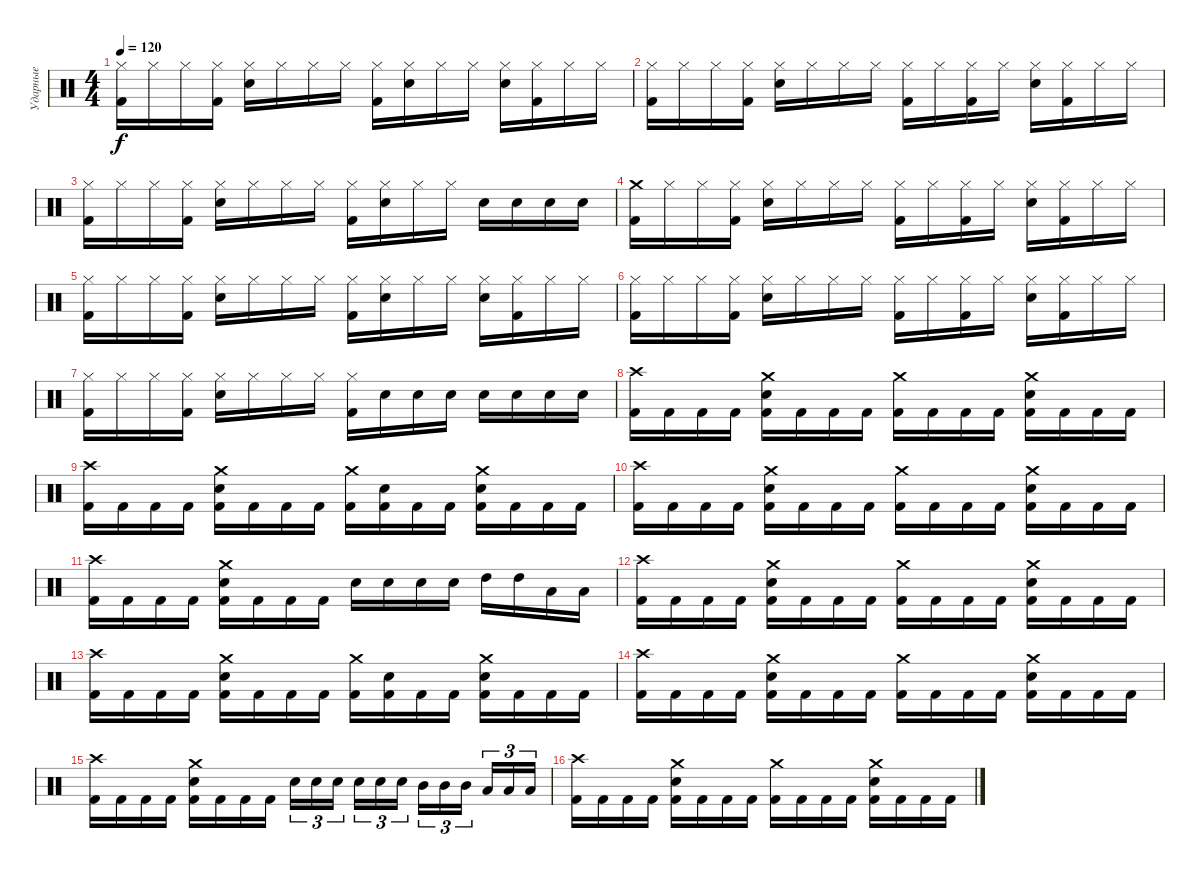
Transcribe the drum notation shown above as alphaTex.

\track ("Ударные" "Ударные") {instrument percussion}
\staff {score}
\articulation defaults
\ts (4 4)
\tempo 120
\clef neutral
\ks c
("Hi-Hat (closed)" "Kick (hit) 2").16{dy f} "Hi-Hat (closed)".16 "Hi-Hat (closed)".16 ("Hi-Hat (closed)" "Kick (hit) 2").16 ("Hi-Hat (closed)" "Electric Snare (hit)").16 "Hi-Hat (closed)".16 "Hi-Hat (closed)".16 "Hi-Hat (closed)".16 ("Hi-Hat (closed)" "Kick (hit) 2").16 ("Hi-Hat (closed)" "Electric Snare (hit)").16 "Hi-Hat (closed)".16 "Hi-Hat (closed)".16 ("Hi-Hat (closed)" "Electric Snare (hit)").16 ("Hi-Hat (closed)" "Kick (hit) 2").16 "Hi-Hat (closed)".16 "Hi-Hat (closed)".16 |
("Hi-Hat (closed)" "Kick (hit) 2").16 "Hi-Hat (closed)".16 "Hi-Hat (closed)".16 ("Hi-Hat (closed)" "Kick (hit) 2").16 ("Hi-Hat (closed)" "Electric Snare (hit)").16 "Hi-Hat (closed)".16 "Hi-Hat (closed)".16 "Hi-Hat (closed)".16 ("Hi-Hat (closed)" "Kick (hit) 2").16 "Hi-Hat (closed)".16 ("Hi-Hat (closed)" "Kick (hit) 2").16 "Hi-Hat (closed)".16 ("Hi-Hat (closed)" "Electric Snare (hit)").16 ("Hi-Hat (closed)" "Kick (hit) 2").16 "Hi-Hat (closed)".16 "Hi-Hat (closed)".16 |
("Hi-Hat (closed)" "Kick (hit) 2").16 "Hi-Hat (closed)".16 "Hi-Hat (closed)".16 ("Hi-Hat (closed)" "Kick (hit) 2").16 ("Hi-Hat (closed)" "Electric Snare (hit)").16 "Hi-Hat (closed)".16 "Hi-Hat (closed)".16 "Hi-Hat (closed)".16 ("Hi-Hat (closed)" "Kick (hit) 2").16 ("Hi-Hat (closed)" "Electric Snare (hit)").16 "Hi-Hat (closed)".16 "Hi-Hat (closed)".16 "Electric Snare (hit)".16 "Electric Snare (hit)".16 "Electric Snare (hit)".16 "Electric Snare (hit)".16 |
("Crash medium (hit)" "Kick (hit) 2").16 "Hi-Hat (closed)".16 "Hi-Hat (closed)".16 ("Hi-Hat (closed)" "Kick (hit) 2").16 ("Hi-Hat (closed)" "Electric Snare (hit)").16 "Hi-Hat (closed)".16 "Hi-Hat (closed)".16 "Hi-Hat (closed)".16 ("Hi-Hat (closed)" "Kick (hit) 2").16 "Hi-Hat (closed)".16 ("Hi-Hat (closed)" "Kick (hit) 2").16 "Hi-Hat (closed)".16 ("Hi-Hat (closed)" "Electric Snare (hit)").16 ("Hi-Hat (closed)" "Kick (hit) 2").16 "Hi-Hat (closed)".16 "Hi-Hat (closed)".16 |
("Hi-Hat (closed)" "Kick (hit) 2").16 "Hi-Hat (closed)".16 "Hi-Hat (closed)".16 ("Hi-Hat (closed)" "Kick (hit) 2").16 ("Hi-Hat (closed)" "Electric Snare (hit)").16 "Hi-Hat (closed)".16 "Hi-Hat (closed)".16 "Hi-Hat (closed)".16 ("Hi-Hat (closed)" "Kick (hit) 2").16 ("Hi-Hat (closed)" "Electric Snare (hit)").16 "Hi-Hat (closed)".16 "Hi-Hat (closed)".16 ("Hi-Hat (closed)" "Electric Snare (hit)").16 ("Hi-Hat (closed)" "Kick (hit) 2").16 "Hi-Hat (closed)".16 "Hi-Hat (closed)".16 |
("Hi-Hat (closed)" "Kick (hit) 2").16 "Hi-Hat (closed)".16 "Hi-Hat (closed)".16 ("Hi-Hat (closed)" "Kick (hit) 2").16 ("Hi-Hat (closed)" "Electric Snare (hit)").16 "Hi-Hat (closed)".16 "Hi-Hat (closed)".16 "Hi-Hat (closed)".16 ("Hi-Hat (closed)" "Kick (hit) 2").16 "Hi-Hat (closed)".16 ("Hi-Hat (closed)" "Kick (hit) 2").16 "Hi-Hat (closed)".16 ("Hi-Hat (closed)" "Electric Snare (hit)").16 ("Hi-Hat (closed)" "Kick (hit) 2").16 "Hi-Hat (closed)".16 "Hi-Hat (closed)".16 |
("Hi-Hat (closed)" "Kick (hit) 2").16 "Hi-Hat (closed)".16 "Hi-Hat (closed)".16 ("Hi-Hat (closed)" "Kick (hit) 2").16 ("Hi-Hat (closed)" "Electric Snare (hit)").16 "Hi-Hat (closed)".16 "Hi-Hat (closed)".16 "Hi-Hat (closed)".16 ("Hi-Hat (closed)" "Kick (hit) 2").16 "Electric Snare (hit)".16 "Electric Snare (hit)".16 "Electric Snare (hit)".16 "Electric Snare (hit)".16 "Electric Snare (hit)".16 "Electric Snare (hit)".16 "Electric Snare (hit)".16 |
("Crash high (hit)" "Kick (hit) 2").16 "Kick (hit) 2".16 "Kick (hit) 2".16 "Kick (hit) 2".16 ("Crash medium (hit)" "Electric Snare (hit)" "Kick (hit) 2").16 "Kick (hit) 2".16 "Kick (hit) 2".16 "Kick (hit) 2".16 ("Crash medium (hit)" "Kick (hit) 2").16 "Kick (hit) 2".16 "Kick (hit) 2".16 "Kick (hit) 2".16 ("Crash medium (hit)" "Electric Snare (hit)" "Kick (hit) 2").16 "Kick (hit) 2".16 "Kick (hit) 2".16 "Kick (hit) 2".16 |
("Crash high (hit)" "Kick (hit) 2").16 "Kick (hit) 2".16 "Kick (hit) 2".16 "Kick (hit) 2".16 ("Crash medium (hit)" "Electric Snare (hit)" "Kick (hit) 2").16 "Kick (hit) 2".16 "Kick (hit) 2".16 "Kick (hit) 2".16 ("Crash medium (hit)" "Kick (hit) 2").16 ("Electric Snare (hit)" "Kick (hit) 2").16 "Kick (hit) 2".16 "Kick (hit) 2".16 ("Crash medium (hit)" "Electric Snare (hit)" "Kick (hit) 2").16 "Kick (hit) 2".16 "Kick (hit) 2".16 "Kick (hit) 2".16 |
("Crash high (hit)" "Kick (hit) 2").16 "Kick (hit) 2".16 "Kick (hit) 2".16 "Kick (hit) 2".16 ("Crash medium (hit)" "Electric Snare (hit)" "Kick (hit) 2").16 "Kick (hit) 2".16 "Kick (hit) 2".16 "Kick (hit) 2".16 ("Crash medium (hit)" "Kick (hit) 2").16 "Kick (hit) 2".16 "Kick (hit) 2".16 "Kick (hit) 2".16 ("Crash medium (hit)" "Electric Snare (hit)" "Kick (hit) 2").16 "Kick (hit) 2".16 "Kick (hit) 2".16 "Kick (hit) 2".16 |
("Crash high (hit)" "Kick (hit) 2").16 "Kick (hit) 2".16 "Kick (hit) 2".16 "Kick (hit) 2".16 ("Crash medium (hit)" "Electric Snare (hit)" "Kick (hit) 2").16 "Kick (hit) 2".16 "Kick (hit) 2".16 "Kick (hit) 2".16 "Electric Snare (hit)".16 "Electric Snare (hit)".16 "Electric Snare (hit)".16 "Electric Snare (hit)".16 "High Tom (hit)".16 "High Tom (hit)".16 "Low Tom (hit)".16 "Low Tom (hit)".16 |
("Crash high (hit)" "Kick (hit) 2").16 "Kick (hit) 2".16 "Kick (hit) 2".16 "Kick (hit) 2".16 ("Crash medium (hit)" "Electric Snare (hit)" "Kick (hit) 2").16 "Kick (hit) 2".16 "Kick (hit) 2".16 "Kick (hit) 2".16 ("Crash medium (hit)" "Kick (hit) 2").16 "Kick (hit) 2".16 "Kick (hit) 2".16 "Kick (hit) 2".16 ("Crash medium (hit)" "Electric Snare (hit)" "Kick (hit) 2").16 "Kick (hit) 2".16 "Kick (hit) 2".16 "Kick (hit) 2".16 |
("Crash high (hit)" "Kick (hit) 2").16 "Kick (hit) 2".16 "Kick (hit) 2".16 "Kick (hit) 2".16 ("Crash medium (hit)" "Electric Snare (hit)" "Kick (hit) 2").16 "Kick (hit) 2".16 "Kick (hit) 2".16 "Kick (hit) 2".16 ("Crash medium (hit)" "Kick (hit) 2").16 ("Electric Snare (hit)" "Kick (hit) 2").16 "Kick (hit) 2".16 "Kick (hit) 2".16 ("Crash medium (hit)" "Electric Snare (hit)" "Kick (hit) 2").16 "Kick (hit) 2".16 "Kick (hit) 2".16 "Kick (hit) 2".16 |
("Crash high (hit)" "Kick (hit) 2").16 "Kick (hit) 2".16 "Kick (hit) 2".16 "Kick (hit) 2".16 ("Crash medium (hit)" "Electric Snare (hit)" "Kick (hit) 2").16 "Kick (hit) 2".16 "Kick (hit) 2".16 "Kick (hit) 2".16 ("Crash medium (hit)" "Kick (hit) 2").16 "Kick (hit) 2".16 "Kick (hit) 2".16 "Kick (hit) 2".16 ("Crash medium (hit)" "Electric Snare (hit)" "Kick (hit) 2").16 "Kick (hit) 2".16 "Kick (hit) 2".16 "Kick (hit) 2".16 |
("Crash high (hit)" "Kick (hit) 2").16 "Kick (hit) 2".16 "Kick (hit) 2".16 "Kick (hit) 2".16 ("Crash medium (hit)" "Electric Snare (hit)" "Kick (hit) 2").16 "Kick (hit) 2".16 "Kick (hit) 2".16 "Kick (hit) 2".16 "Electric Snare (hit)".16{tu (3 2)} "Electric Snare (hit)".16{tu (3 2)} "Electric Snare (hit)".16{tu (3 2) beam splitsecondary} "Electric Snare (hit)".16{tu (3 2)} "Electric Snare (hit)".16{tu (3 2)} "Electric Snare (hit)".16{tu (3 2)} "Mid Tom (hit)".16{tu (3 2)} "Mid Tom (hit)".16{tu (3 2)} "Mid Tom (hit)".16{tu (3 2) beam splitsecondary} "Low Tom (hit)".16{tu (3 2)} "Low Tom (hit)".16{tu (3 2)} "Low Tom (hit)".16{tu (3 2)} |
("Crash high (hit)" "Kick (hit) 2").16 "Kick (hit) 2".16 "Kick (hit) 2".16 "Kick (hit) 2".16 ("Crash medium (hit)" "Electric Snare (hit)" "Kick (hit) 2").16 "Kick (hit) 2".16 "Kick (hit) 2".16 "Kick (hit) 2".16 ("Crash medium (hit)" "Kick (hit) 2").16 "Kick (hit) 2".16 "Kick (hit) 2".16 "Kick (hit) 2".16 ("Crash medium (hit)" "Electric Snare (hit)" "Kick (hit) 2").16 "Kick (hit) 2".16 "Kick (hit) 2".16 "Kick (hit) 2".16
